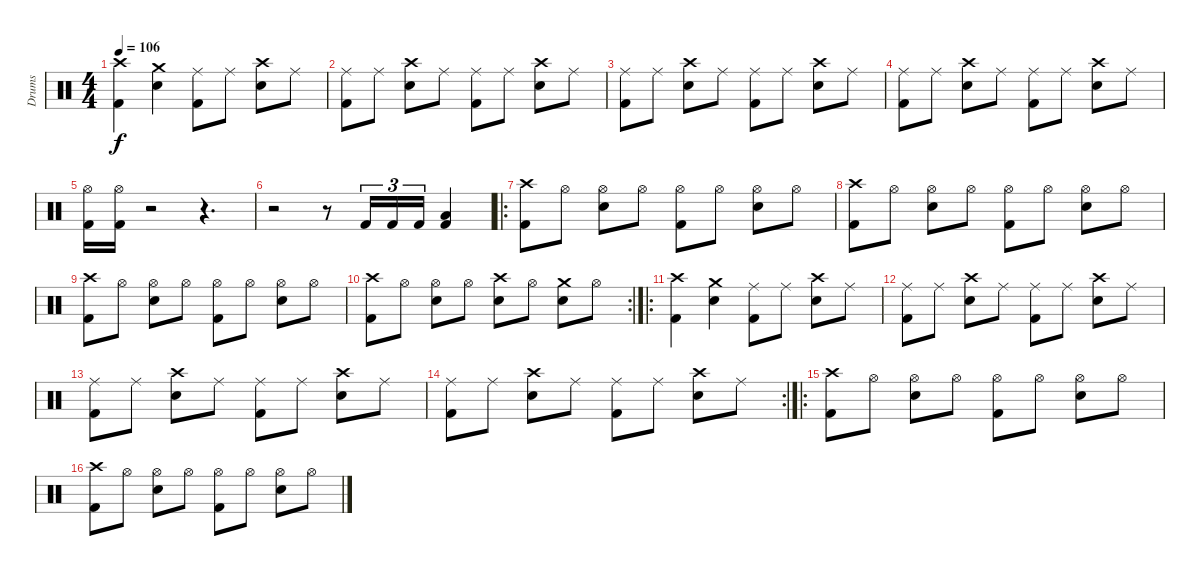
\track ("Drums" "Drums") {instrument percussion}
\staff {score}
\articulation defaults
\ts (4 4)
\tempo 106
\clef neutral
\ks c
("Crash high (hit)" "Kick (hit) 2").4{dy f} ("Crash medium (hit)" "Electric Snare (hit)").4 ("Ride (middle)" "Kick (hit) 2").8 "Ride (middle)".8 ("Crash high (hit)" "Electric Snare (hit)").8 "Ride (middle)".8 |
("Ride (middle)" "Kick (hit) 2").8 "Ride (middle)".8 ("Crash high (hit)" "Electric Snare (hit)").8 "Ride (middle)".8 ("Ride (middle)" "Kick (hit) 2").8 "Ride (middle)".8 ("Crash high (hit)" "Electric Snare (hit)").8 "Ride (middle)".8 |
("Ride (middle)" "Kick (hit) 2").8 "Ride (middle)".8 ("Crash high (hit)" "Electric Snare (hit)").8 "Ride (middle)".8 ("Ride (middle)" "Kick (hit) 2").8 "Ride (middle)".8 ("Crash high (hit)" "Electric Snare (hit)").8 "Ride (middle)".8 |
("Ride (middle)" "Kick (hit) 2").8 "Ride (middle)".8 ("Crash high (hit)" "Electric Snare (hit)").8 "Ride (middle)".8 ("Ride (middle)" "Kick (hit) 2").8 "Ride (middle)".8 ("Crash high (hit)" "Electric Snare (hit)").8 "Ride (middle)".8 |
("Hi-Hat (open)" "Kick (hit) 2").16 ("Hi-Hat (open)" "Kick (hit) 2").16 r.2 r.4{d} |
r.2 r.8 "Kick (hit) 2".16{tu (3 2)} "Kick (hit) 2".16{tu (3 2)} "Kick (hit) 2".16{tu (3 2)} ("Low Tom (hit)" "Kick (hit) 2").4 |
\ro
("Crash high (hit)" "Kick (hit) 2").8 "Hi-Hat (open)".8 ("Hi-Hat (open)" "Electric Snare (hit)").8 "Hi-Hat (open)".8 ("Hi-Hat (open)" "Kick (hit) 2").8 "Hi-Hat (open)".8 ("Hi-Hat (open)" "Electric Snare (hit)").8 "Hi-Hat (open)".8 |
("Crash high (hit)" "Kick (hit) 2").8 "Hi-Hat (open)".8 ("Hi-Hat (open)" "Electric Snare (hit)").8 "Hi-Hat (open)".8 ("Hi-Hat (open)" "Kick (hit) 2").8 "Hi-Hat (open)".8 ("Hi-Hat (open)" "Electric Snare (hit)").8 "Hi-Hat (open)".8 |
("Crash high (hit)" "Kick (hit) 2").8 "Hi-Hat (open)".8 ("Hi-Hat (open)" "Electric Snare (hit)").8 "Hi-Hat (open)".8 ("Hi-Hat (open)" "Kick (hit) 2").8 "Hi-Hat (open)".8 ("Hi-Hat (open)" "Electric Snare (hit)").8 "Hi-Hat (open)".8 |
\rc 2
("Crash high (hit)" "Kick (hit) 2").8 "Hi-Hat (open)".8 ("Hi-Hat (open)" "Electric Snare (hit)").8 "Hi-Hat (open)".8 ("Crash high (hit)" "Electric Snare (hit)").8 "Hi-Hat (open)".8 ("Crash medium (hit)" "Electric Snare (hit)").8 "Hi-Hat (open)".8 |
\ro
("Crash high (hit)" "Kick (hit) 2").4 ("Crash medium (hit)" "Electric Snare (hit)").4 ("Ride (middle)" "Kick (hit) 2").8 "Ride (middle)".8 ("Crash high (hit)" "Electric Snare (hit)").8 "Ride (middle)".8 |
("Ride (middle)" "Kick (hit) 2").8 "Ride (middle)".8 ("Crash high (hit)" "Electric Snare (hit)").8 "Ride (middle)".8 ("Ride (middle)" "Kick (hit) 2").8 "Ride (middle)".8 ("Crash high (hit)" "Electric Snare (hit)").8 "Ride (middle)".8 |
("Ride (middle)" "Kick (hit) 2").8 "Ride (middle)".8 ("Crash high (hit)" "Electric Snare (hit)").8 "Ride (middle)".8 ("Ride (middle)" "Kick (hit) 2").8 "Ride (middle)".8 ("Crash high (hit)" "Electric Snare (hit)").8 "Ride (middle)".8 |
\rc 2
("Ride (middle)" "Kick (hit) 2").8 "Ride (middle)".8 ("Crash high (hit)" "Electric Snare (hit)").8 "Ride (middle)".8 ("Ride (middle)" "Kick (hit) 2").8 "Ride (middle)".8 ("Crash high (hit)" "Electric Snare (hit)").8 "Ride (middle)".8 |
\ro
("Crash high (hit)" "Kick (hit) 2").8 "Hi-Hat (open)".8 ("Hi-Hat (open)" "Electric Snare (hit)").8 "Hi-Hat (open)".8 ("Hi-Hat (open)" "Kick (hit) 2").8 "Hi-Hat (open)".8 ("Hi-Hat (open)" "Electric Snare (hit)").8 "Hi-Hat (open)".8 |
("Crash high (hit)" "Kick (hit) 2").8 "Hi-Hat (open)".8 ("Hi-Hat (open)" "Electric Snare (hit)").8 "Hi-Hat (open)".8 ("Hi-Hat (open)" "Kick (hit) 2").8 "Hi-Hat (open)".8 ("Hi-Hat (open)" "Electric Snare (hit)").8 "Hi-Hat (open)".8
